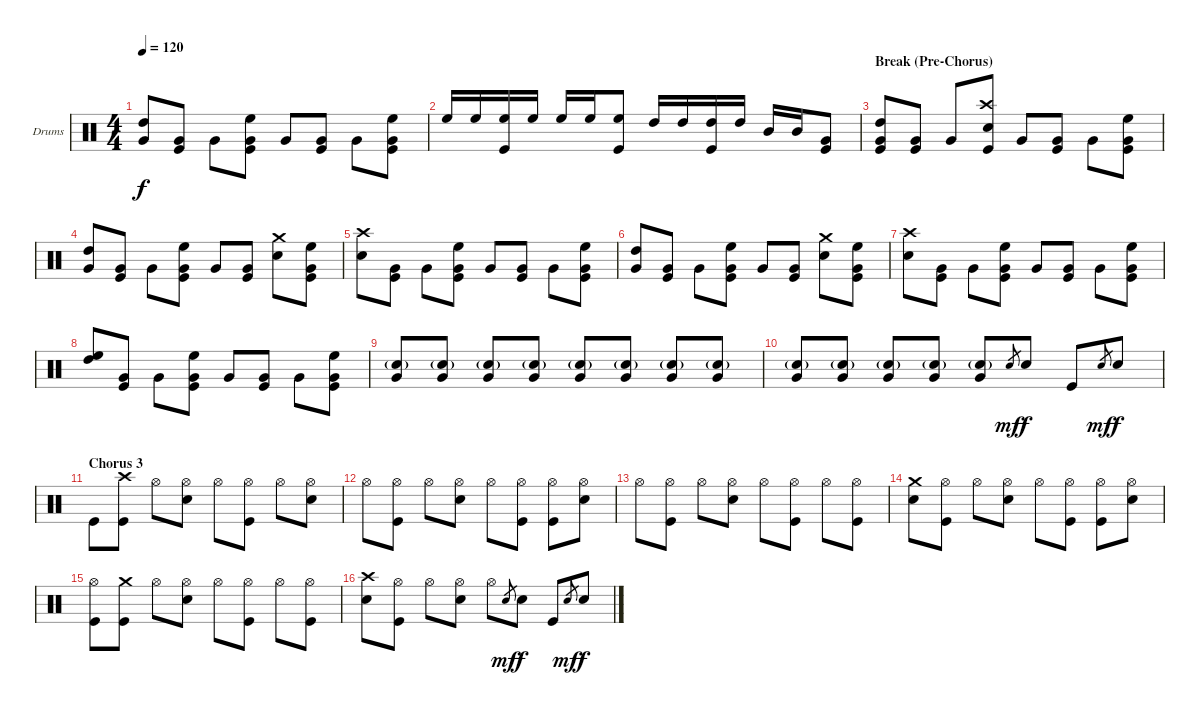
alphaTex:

\bracketExtendMode groupsimilarinstruments
\firstSystemTrackNameOrientation horizontal
\otherSystemsTrackNameOrientation horizontal
\track ("Drumkit" "Drums") {instrument percussion}
\staff {score}
\articulation defaults
\ts (4 4)
\tempo 120
\clef neutral
\ks c
("High Tom (hit)" "Very Low Tom (hit)").8{dy f} ("Very Low Tom (hit)" "Kick (hit)").8 "Very Low Tom (hit)".8 ("High Floor Tom (hit)" "Very Low Tom (hit)" "Kick (hit)").8 "Very Low Tom (hit)".8 ("Very Low Tom (hit)" "Kick (hit)").8 "Very Low Tom (hit)".8 ("High Floor Tom (hit)" "Very Low Tom (hit)" "Kick (hit)").8 |
"High Floor Tom (hit)".16 "High Floor Tom (hit)".16 ("High Floor Tom (hit)" "Kick (hit)").16 "High Floor Tom (hit)".16 "High Floor Tom (hit)".16 "High Floor Tom (hit)".16 ("High Floor Tom (hit)" "Kick (hit)").8 "High Tom (hit)".16 "High Tom (hit)".16 ("High Tom (hit)" "Kick (hit)").16 "High Tom (hit)".16 "Mid Tom (hit)".16 "Mid Tom (hit)".16 ("Very Low Tom (hit)" "Kick (hit)").8 |
\section ("" "Break (Pre-Chorus)")
("High Tom (hit)" "Very Low Tom (hit)" "Kick (hit)").8 ("Very Low Tom (hit)" "Kick (hit)").8 "Very Low Tom (hit)".8 ("Crash high (hit)" "Snare (hit) 2" "Kick (hit)").8 "Very Low Tom (hit)".8 ("Very Low Tom (hit)" "Kick (hit)").8 "Very Low Tom (hit)".8 ("High Floor Tom (hit)" "Very Low Tom (hit)" "Kick (hit)").8 |
("High Tom (hit)" "Very Low Tom (hit)").8 ("Very Low Tom (hit)" "Kick (hit)").8 "Very Low Tom (hit)".8 ("High Floor Tom (hit)" "Very Low Tom (hit)" "Kick (hit)").8 "Very Low Tom (hit)".8 ("Very Low Tom (hit)" "Kick (hit)").8 ("Crash medium (hit)" "Snare (hit) 2").8 ("High Floor Tom (hit)" "Very Low Tom (hit)" "Kick (hit)").8 |
("Crash high (hit)" "Snare (hit) 2").8 ("Very Low Tom (hit)" "Kick (hit)").8 "Very Low Tom (hit)".8 ("High Floor Tom (hit)" "Very Low Tom (hit)" "Kick (hit)").8 "Very Low Tom (hit)".8 ("Very Low Tom (hit)" "Kick (hit)").8 "Very Low Tom (hit)".8 ("High Floor Tom (hit)" "Very Low Tom (hit)" "Kick (hit)").8 |
("High Tom (hit)" "Very Low Tom (hit)").8 ("Very Low Tom (hit)" "Kick (hit)").8 "Very Low Tom (hit)".8 ("High Floor Tom (hit)" "Very Low Tom (hit)" "Kick (hit)").8 "Very Low Tom (hit)".8 ("Very Low Tom (hit)" "Kick (hit)").8 ("Crash medium (hit)" "Snare (hit) 2").8 ("High Floor Tom (hit)" "Very Low Tom (hit)" "Kick (hit)").8 |
("Crash high (hit)" "Snare (hit) 2").8 ("Very Low Tom (hit)" "Kick (hit)").8 "Very Low Tom (hit)".8 ("High Floor Tom (hit)" "Very Low Tom (hit)" "Kick (hit)").8 "Very Low Tom (hit)".8 ("Very Low Tom (hit)" "Kick (hit)").8 "Very Low Tom (hit)".8 ("High Floor Tom (hit)" "Very Low Tom (hit)" "Kick (hit)").8 |
("High Tom (hit)" "High Floor Tom (hit)").8 ("Very Low Tom (hit)" "Kick (hit)").8 "Very Low Tom (hit)".8 ("High Floor Tom (hit)" "Very Low Tom (hit)" "Kick (hit)").8 "Very Low Tom (hit)".8 ("Very Low Tom (hit)" "Kick (hit)").8 "Very Low Tom (hit)".8 ("High Floor Tom (hit)" "Very Low Tom (hit)" "Kick (hit)").8 |
("Very Low Tom (hit)" "Snare (hit) 2"{g}).8 ("Very Low Tom (hit)" "Snare (hit) 2"{g}).8 ("Very Low Tom (hit)" "Snare (hit) 2"{g}).8 ("Very Low Tom (hit)" "Snare (hit) 2"{g}).8 ("Very Low Tom (hit)" "Snare (hit) 2"{g}).8 ("Very Low Tom (hit)" "Snare (hit) 2"{g}).8 ("Very Low Tom (hit)" "Snare (hit) 2"{g}).8 ("Very Low Tom (hit)" "Snare (hit) 2"{g}).8 |
("Very Low Tom (hit)" "Snare (hit) 2"{g}).8 ("Very Low Tom (hit)" "Snare (hit) 2"{g}).8 ("Very Low Tom (hit)" "Snare (hit) 2"{g}).8 ("Very Low Tom (hit)" "Snare (hit) 2"{g}).8 ("Very Low Tom (hit)" "Snare (hit) 2"{g}).8 "Snare (hit) 2".8{gr dy mf} "Snare (hit) 2".8{dy f} "Kick (hit)".8 "Snare (hit) 2".8{gr dy mf} "Snare (hit) 2".8{dy f} |
\section ("" "Chorus 3")
"Kick (hit)".8 ("Crash high (hit)" "Kick (hit)").8 "Hi-Hat (open)".8 ("Hi-Hat (open)" "Snare (hit) 2").8 "Hi-Hat (open)".8 ("Hi-Hat (open)" "Kick (hit)").8 "Hi-Hat (open)".8 ("Hi-Hat (open)" "Snare (hit) 2").8 |
"Hi-Hat (open)".8 ("Hi-Hat (open)" "Kick (hit)").8 "Hi-Hat (open)".8 ("Hi-Hat (open)" "Snare (hit) 2").8 "Hi-Hat (open)".8 ("Hi-Hat (open)" "Kick (hit)").8 ("Hi-Hat (open)" "Kick (hit)").8 ("Hi-Hat (open)" "Snare (hit) 2").8 |
"Hi-Hat (open)".8 ("Hi-Hat (open)" "Kick (hit)").8 "Hi-Hat (open)".8 ("Hi-Hat (open)" "Snare (hit) 2").8 "Hi-Hat (open)".8 ("Hi-Hat (open)" "Kick (hit)").8 "Hi-Hat (open)".8 ("Hi-Hat (open)" "Kick (hit)").8 |
("Crash medium (hit)" "Snare (hit) 2").8 ("Hi-Hat (open)" "Kick (hit)").8 "Hi-Hat (open)".8 ("Hi-Hat (open)" "Snare (hit) 2").8 "Hi-Hat (open)".8 ("Hi-Hat (open)" "Kick (hit)").8 ("Hi-Hat (open)" "Kick (hit)").8 ("Hi-Hat (open)" "Snare (hit) 2").8 |
("Hi-Hat (open)" "Kick (hit)").8 ("Crash medium (hit)" "Kick (hit)").8 "Hi-Hat (open)".8 ("Hi-Hat (open)" "Snare (hit) 2").8 "Hi-Hat (open)".8 ("Hi-Hat (open)" "Kick (hit)").8 "Hi-Hat (open)".8 ("Hi-Hat (open)" "Kick (hit)").8 |
("Crash high (hit)" "Snare (hit) 2").8 ("Hi-Hat (open)" "Kick (hit)").8 "Hi-Hat (open)".8 ("Hi-Hat (open)" "Snare (hit) 2").8 "Hi-Hat (open)".8 "Snare (hit) 2".8{gr dy mf} "Snare (hit) 2".8{dy f} "Kick (hit)".8 "Snare (hit) 2".8{gr dy mf} "Snare (hit) 2".8{dy f}
